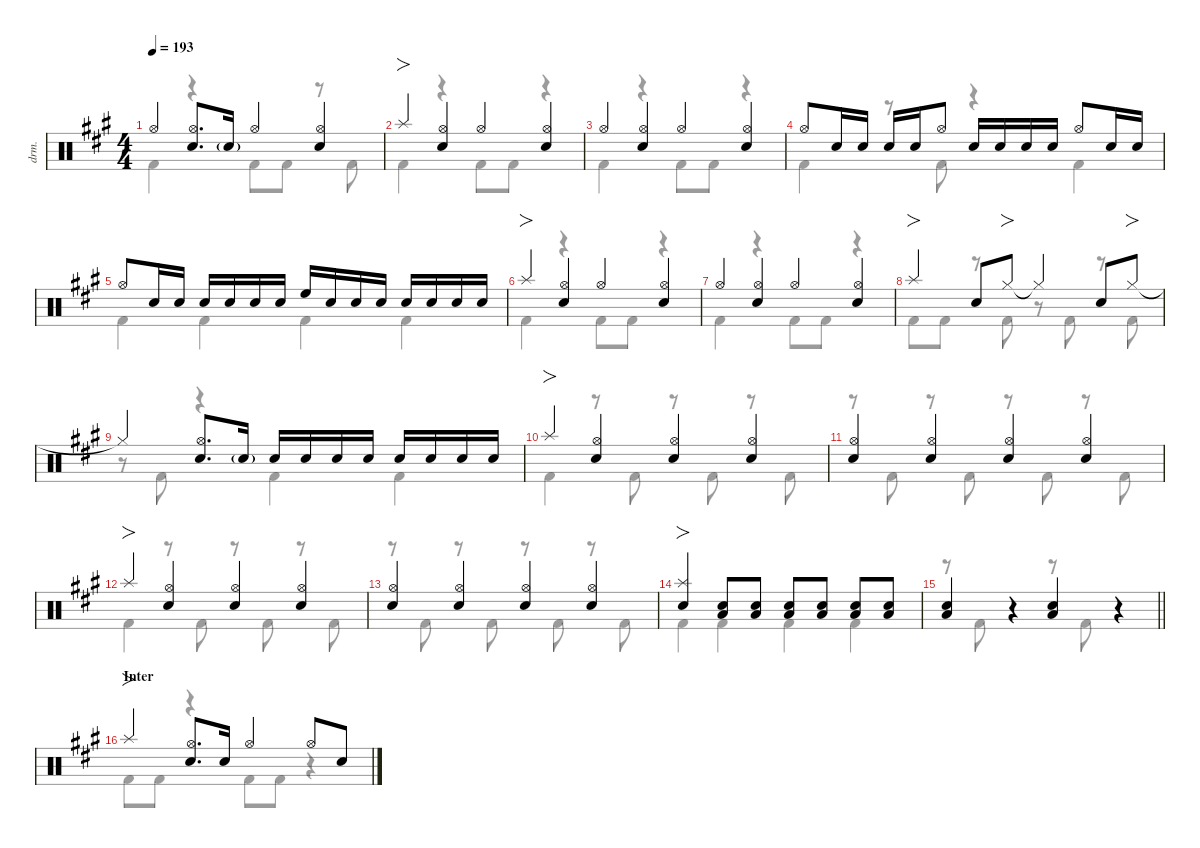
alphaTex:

\defaultSystemsLayout 4
\hideDynamics
\bracketExtendMode nobrackets
\track ("伊地知虹夏" "drm.") {instrument percussion}
\staff {score}
\articulation defaults
\voice
\ts (4 4)
\tempo 193
\clef neutral
\ks a "Hi-Hat (open)"{acc forcenatural}.4{dy mf beam Up}
("Hi-Hat (open)"{acc forcenatural} "Snare (hit) 2"{acc forcenatural}).8{d beam Up} "Snare (hit) 2"{g acc forcenatural}.16{beam Up} "Hi-Hat (open)"{acc forcenatural}.4{beam Up} ("Snare (hit) 2"{acc forcenatural} "Hi-Hat (open)"{acc forcenatural}).4{beam Up} |
"Splash (hit)"{acc forcenatural}.4{fo beam Up} ("Hi-Hat (open)"{acc forcenatural} "Snare (hit) 2"{acc forcenatural}).4{beam Up} "Hi-Hat (open)"{acc forcenatural}.4{beam Up} ("Hi-Hat (open)"{acc forcenatural} "Snare (hit) 2"{acc forcenatural}).4{beam Up} |
"Hi-Hat (open)"{acc forcenatural}.4{beam Up} ("Hi-Hat (open)"{acc forcenatural} "Snare (hit) 2"{acc forcenatural}).4{beam Up} "Hi-Hat (open)"{acc forcenatural}.4{beam Up} ("Hi-Hat (open)"{acc forcenatural} "Snare (hit) 2"{acc forcenatural}).4{beam Up} |
"Hi-Hat (open)"{acc forcenatural}.8{beam Up} "Snare (hit) 2"{acc forcenatural}.16{beam Up} "Snare (hit) 2"{acc forcenatural}.16{beam Up} "Snare (hit) 2"{acc forcenatural}.16{beam Up} "Snare (hit) 2"{acc forcenatural}.16{beam Up} "Hi-Hat (open)"{acc forcenatural}.8{beam Up} "Snare (hit) 2"{acc forcenatural}.16{beam Up} "Snare (hit) 2"{acc forcenatural}.16{beam Up} "Snare (hit) 2"{acc forcenatural}.16{beam Up} "Snare (hit) 2"{acc forcenatural}.16{beam Up} "Hi-Hat (open)"{acc forcenatural}.8{beam Up} "Snare (hit) 2"{acc forcenatural}.16{beam Up} "Snare (hit) 2"{acc forcenatural}.16{beam Up} |
"Hi-Hat (open)"{acc forcenatural}.8{beam Up} "Snare (hit) 2"{acc forcenatural}.16{beam Up} "Snare (hit) 2"{acc forcenatural}.16{beam Up} "Snare (hit) 2"{acc forcenatural}.16{beam Up} "Snare (hit) 2"{acc forcenatural}.16{beam Up} "Snare (hit) 2"{acc forcenatural}.16{beam Up} "Snare (hit) 2"{acc forcenatural}.16{beam Up} "High Floor Tom (hit)"{acc forcenatural}.16{beam Up} "Snare (hit) 2"{acc forcenatural}.16{beam Up} "Snare (hit) 2"{acc forcenatural}.16{beam Up} "Snare (hit) 2"{acc forcenatural}.16{beam Up} "Snare (hit) 2"{acc forcenatural}.16{beam Up} "Snare (hit) 2"{acc forcenatural}.16{beam Up} "Snare (hit) 2"{acc forcenatural}.16{beam Up} "Snare (hit) 2"{acc forcenatural}.16{beam Up} |
"Splash (hit)"{acc forcenatural}.4{fo beam Up} ("Hi-Hat (open)"{acc forcenatural} "Snare (hit) 2"{acc forcenatural}).4{beam Up} "Hi-Hat (open)"{acc forcenatural}.4{beam Up} ("Hi-Hat (open)"{acc forcenatural} "Snare (hit) 2"{acc forcenatural}).4{beam Up} |
"Hi-Hat (open)"{acc forcenatural}.4{beam Up} ("Hi-Hat (open)"{acc forcenatural} "Snare (hit) 2"{acc forcenatural}).4{beam Up} "Hi-Hat (open)"{acc forcenatural}.4{beam Up} ("Hi-Hat (open)"{acc forcenatural} "Snare (hit) 2"{acc forcenatural}).4{beam Up} |
"Splash (hit)"{acc forcenatural}.4{fo beam Up} "Snare (hit) 2"{acc forcenatural}.8{beam Up} "Hi-Hat (closed)"{acc forcenatural}.8{fo beam Up} "Hi-Hat (closed)"{t acc forcenatural}.4{beam Up} "Snare (hit) 2"{acc forcenatural}.8{beam Up} "Hi-Hat (closed)"{acc forcenatural}.8{fo beam Up} |
"Hi-Hat (closed)"{t acc forcenatural}.4{beam Up} ("Hi-Hat (open)"{acc forcenatural} "Snare (hit) 2"{acc forcenatural}).8{d beam Up} "Snare (hit) 2"{g acc forcenatural}.16{beam Up} "Snare (hit) 2"{acc forcenatural}.16{beam Up} "Snare (hit) 2"{acc forcenatural}.16{beam Up} "Snare (hit) 2"{acc forcenatural}.16{beam Up} "Snare (hit) 2"{acc forcenatural}.16{beam Up} "Snare (hit) 2"{acc forcenatural}.16{beam Up} "Snare (hit) 2"{acc forcenatural}.16{beam Up} "Snare (hit) 2"{acc forcenatural}.16{beam Up} "Snare (hit) 2"{acc forcenatural}.16{beam Up} |
"Splash (hit)"{acc forcenatural}.4{fo beam Up} ("Hi-Hat (open)"{acc forcenatural} "Snare (hit) 2"{acc forcenatural}).4{beam Up} ("Hi-Hat (open)"{acc forcenatural} "Snare (hit) 2"{acc forcenatural}).4{beam Up} ("Hi-Hat (open)"{acc forcenatural} "Snare (hit) 2"{acc forcenatural}).4{beam Up} |
("Hi-Hat (open)"{acc forcenatural} "Snare (hit) 2"{acc forcenatural}).4{beam Up} ("Hi-Hat (open)"{acc forcenatural} "Snare (hit) 2"{acc forcenatural}).4{beam Up} ("Hi-Hat (open)"{acc forcenatural} "Snare (hit) 2"{acc forcenatural}).4{beam Up} ("Hi-Hat (open)"{acc forcenatural} "Snare (hit) 2"{acc forcenatural}).4{beam Up} |
"Splash (hit)"{acc forcenatural}.4{fo beam Up} ("Hi-Hat (open)"{acc forcenatural} "Snare (hit) 2"{acc forcenatural}).4{beam Up} ("Hi-Hat (open)"{acc forcenatural} "Snare (hit) 2"{acc forcenatural}).4{beam Up} ("Hi-Hat (open)"{acc forcenatural} "Snare (hit) 2"{acc forcenatural}).4{beam Up} |
("Hi-Hat (open)"{acc forcenatural} "Snare (hit) 2"{acc forcenatural}).4{beam Up} ("Hi-Hat (open)"{acc forcenatural} "Snare (hit) 2"{acc forcenatural}).4{beam Up} ("Hi-Hat (open)"{acc forcenatural} "Snare (hit) 2"{acc forcenatural}).4{beam Up} ("Hi-Hat (open)"{acc forcenatural} "Snare (hit) 2"{acc forcenatural}).4{beam Up} |
("Splash (hit)"{acc forcenatural} "Snare (hit) 2"{acc forcenatural}).4{fo beam Up} ("Snare (hit) 2"{acc forcenatural} "Low Tom (hit)"{acc forcenatural}).8{beam Up} ("Snare (hit) 2"{acc forcenatural} "Low Tom (hit)"{acc forcenatural}).8{beam Up} ("Low Tom (hit)"{acc forcenatural} "Snare (hit) 2"{acc forcenatural}).8{beam Up} ("Low Tom (hit)"{acc forcenatural} "Snare (hit) 2"{acc forcenatural}).8{beam Up} ("Low Tom (hit)"{acc forcenatural} "Snare (hit) 2"{acc forcenatural}).8{beam Up} ("Low Tom (hit)"{acc forcenatural} "Snare (hit) 2"{acc forcenatural}).8{beam Up} |
\barLineRight lightlight
("Snare (hit) 2"{acc forcenatural} "Low Tom (hit)"{acc forcenatural}).4{beam Up} r.4{beam Up} ("Low Tom (hit)"{acc forcenatural} "Snare (hit) 2"{acc forcenatural}).4{beam Up} r.4{beam Up} |
\section ("" "Inter")
"Splash (hit)"{acc forcenatural}.4{fo beam Up} ("Hi-Hat (open)"{acc forcenatural} "Snare (hit) 2"{acc forcenatural}).8{d beam Up} "Snare (hit) 2"{acc forcenatural}.16{beam Up} "Hi-Hat (open)"{acc forcenatural}.4{beam Up} "Hi-Hat (open)"{acc forcenatural}.8{beam Up} "Snare (hit) 2"{acc forcenatural}.8{beam Up}
\voice
\clef neutral
\ottava regular
\simile none
\ks a "Kick (hit) 2"{acc forcenatural}.4{dy mf beam Down}
r.4{beam Down} "Kick (hit) 2"{acc forcenatural}.8{beam Down} "Kick (hit) 2"{acc forcenatural}.8{beam Down} r.8{beam Down} "Kick (hit) 2"{acc forcenatural}.8{beam Down} |
"Kick (hit) 2"{acc forcenatural}.4{beam Down} r.4{beam Down} "Kick (hit) 2"{acc forcenatural}.8{beam Down} "Kick (hit) 2"{acc forcenatural}.8{beam Down} r.4{beam Down} |
"Kick (hit) 2"{acc forcenatural}.4{beam Down} r.4{beam Down} "Kick (hit) 2"{acc forcenatural}.8{beam Down} "Kick (hit) 2"{acc forcenatural}.8{beam Down} r.4{beam Down} |
"Kick (hit) 2"{acc forcenatural}.4{beam Down} r.8{beam Down} "Kick (hit) 2"{acc forcenatural}.8{beam Down} r.4{beam Down} "Kick (hit) 2"{acc forcenatural}.4{beam Down} |
"Kick (hit) 2"{acc forcenatural}.4{beam Down} "Kick (hit) 2"{acc forcenatural}.4{beam Down} "Kick (hit) 2"{acc forcenatural}.4{beam Down} "Kick (hit) 2"{acc forcenatural}.4{beam Down} |
"Kick (hit) 2"{acc forcenatural}.4{beam Down} r.4{beam Down} "Kick (hit) 2"{acc forcenatural}.8{beam Down} "Kick (hit) 2"{acc forcenatural}.8{beam Down} r.4{beam Down} |
"Kick (hit) 2"{acc forcenatural}.4{beam Down} r.4{beam Down} "Kick (hit) 2"{acc forcenatural}.8{beam Down} "Kick (hit) 2"{acc forcenatural}.8{beam Down} r.4{beam Down} |
"Kick (hit) 2"{acc forcenatural}.8{beam Down} "Kick (hit) 2"{acc forcenatural}.8{beam Down} r.8{beam Down} "Kick (hit) 2"{acc forcenatural}.8{beam Down} r.8{beam Down} "Kick (hit) 2"{acc forcenatural}.8{beam Down} r.8{beam Down} "Kick (hit) 2"{acc forcenatural}.8{beam Down} |
r.8{beam Down} "Kick (hit) 2"{acc forcenatural}.8{beam Down} r.4{beam Down} "Kick (hit) 2"{acc forcenatural}.4{beam Down} "Kick (hit) 2"{acc forcenatural}.4{beam Down} |
"Kick (hit) 2"{acc forcenatural}.4{beam Down} r.8{beam Down} "Kick (hit) 2"{acc forcenatural}.8{beam Down} r.8{beam Down} "Kick (hit) 2"{acc forcenatural}.8{beam Down} r.8{beam Down} "Kick (hit) 2"{acc forcenatural}.8{beam Down} |
r.8{beam Down} "Kick (hit) 2"{acc forcenatural}.8{beam Down} r.8{beam Down} "Kick (hit) 2"{acc forcenatural}.8{beam Down} r.8{beam Down} "Kick (hit) 2"{acc forcenatural}.8{beam Down} r.8{beam Down} "Kick (hit) 2"{acc forcenatural}.8{beam Down} |
"Kick (hit) 2"{acc forcenatural}.4{beam Down} r.8{beam Down} "Kick (hit) 2"{acc forcenatural}.8{beam Down} r.8{beam Down} "Kick (hit) 2"{acc forcenatural}.8{beam Down} r.8{beam Down} "Kick (hit) 2"{acc forcenatural}.8{beam Down} |
r.8{beam Down} "Kick (hit) 2"{acc forcenatural}.8{beam Down} r.8{beam Down} "Kick (hit) 2"{acc forcenatural}.8{beam Down} r.8{beam Down} "Kick (hit) 2"{acc forcenatural}.8{beam Down} r.8{beam Down} "Kick (hit) 2"{acc forcenatural}.8{beam Down} |
"Kick (hit) 2"{acc forcenatural}.4{beam Down} "Kick (hit) 2"{acc forcenatural}.4{beam Down} "Kick (hit) 2"{acc forcenatural}.4{beam Down} "Kick (hit) 2"{acc forcenatural}.4{beam Down} |
\barLineRight lightlight
r.8{beam Down} "Kick (hit) 2"{acc forcenatural}.8{beam Down} r.4{beam Down} r.8{beam Down} "Kick (hit) 2"{acc forcenatural}.8{beam Down} r.4{beam Down} |
"Kick (hit) 2"{acc forcenatural}.8{beam Down} "Kick (hit) 2"{acc forcenatural}.8{beam Down} r.4{beam Down} "Kick (hit) 2"{acc forcenatural}.8{beam Down} "Kick (hit) 2"{acc forcenatural}.8{beam Down} r.4{beam Down}
